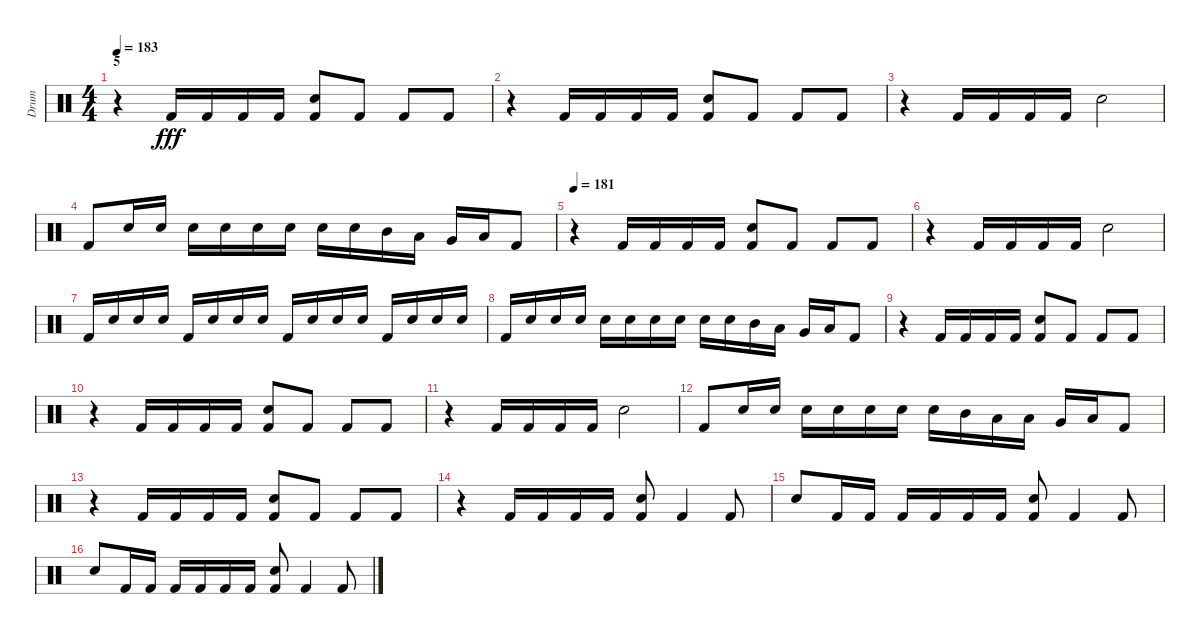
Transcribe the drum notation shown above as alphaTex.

\track ("Drum" "Drum") {instrument percussion}
\staff {score}
\articulation defaults
\ts (4 4)
\section ("" "5")
\tempo 183
\clef neutral
\ks c
r.4{dy fff} "Kick (hit) 2".16 "Kick (hit) 2".16 "Kick (hit) 2".16 "Kick (hit) 2".16 ("Electric Snare (hit)" "Kick (hit) 2").8 "Kick (hit) 2".8 "Kick (hit) 2".8 "Kick (hit) 2".8 |
r.4 "Kick (hit) 2".16 "Kick (hit) 2".16 "Kick (hit) 2".16 "Kick (hit) 2".16 ("Electric Snare (hit)" "Kick (hit) 2").8 "Kick (hit) 2".8 "Kick (hit) 2".8 "Kick (hit) 2".8 |
r.4 "Kick (hit) 2".16 "Kick (hit) 2".16 "Kick (hit) 2".16 "Kick (hit) 2".16 "Electric Snare (hit)".2 |
"Kick (hit) 2".8 "Electric Snare (hit)".16 "Electric Snare (hit)".16 "Electric Snare (hit)".16 "Electric Snare (hit)".16 "Electric Snare (hit)".16 "Electric Snare (hit)".16 "Electric Snare (hit)".16 "Electric Snare (hit)".16 "Mid Tom (hit)".16 "Low Tom (hit)".16 "Very Low Tom (hit)".16 "Low Floor Tom (hit)".16 "Kick (hit) 2".8 |
\tempo 181
r.4 "Kick (hit) 2".16 "Kick (hit) 2".16 "Kick (hit) 2".16 "Kick (hit) 2".16 ("Electric Snare (hit)" "Kick (hit) 2").8 "Kick (hit) 2".8 "Kick (hit) 2".8 "Kick (hit) 2".8 |
r.4 "Kick (hit) 2".16 "Kick (hit) 2".16 "Kick (hit) 2".16 "Kick (hit) 2".16 "Electric Snare (hit)".2 |
"Kick (hit) 2".16 "Electric Snare (hit)".16 "Electric Snare (hit)".16 "Electric Snare (hit)".16 "Kick (hit) 2".16 "Electric Snare (hit)".16 "Electric Snare (hit)".16 "Electric Snare (hit)".16 "Kick (hit) 2".16 "Electric Snare (hit)".16 "Electric Snare (hit)".16 "Electric Snare (hit)".16 "Kick (hit) 2".16 "Electric Snare (hit)".16 "Electric Snare (hit)".16 "Electric Snare (hit)".16 |
"Kick (hit) 2".16 "Electric Snare (hit)".16 "Electric Snare (hit)".16 "Electric Snare (hit)".16 "Electric Snare (hit)".16 "Electric Snare (hit)".16 "Electric Snare (hit)".16 "Electric Snare (hit)".16 "Electric Snare (hit)".16 "Electric Snare (hit)".16 "Mid Tom (hit)".16 "Low Tom (hit)".16 "Very Low Tom (hit)".16 "Low Floor Tom (hit)".16 "Kick (hit) 2".8 |
r.4 "Kick (hit) 2".16 "Kick (hit) 2".16 "Kick (hit) 2".16 "Kick (hit) 2".16 ("Electric Snare (hit)" "Kick (hit) 2").8 "Kick (hit) 2".8 "Kick (hit) 2".8 "Kick (hit) 2".8 |
r.4 "Kick (hit) 2".16 "Kick (hit) 2".16 "Kick (hit) 2".16 "Kick (hit) 2".16 ("Electric Snare (hit)" "Kick (hit) 2").8 "Kick (hit) 2".8 "Kick (hit) 2".8 "Kick (hit) 2".8 |
r.4 "Kick (hit) 2".16 "Kick (hit) 2".16 "Kick (hit) 2".16 "Kick (hit) 2".16 "Electric Snare (hit)".2 |
"Kick (hit) 2".8 "Electric Snare (hit)".16 "Electric Snare (hit)".16 "Electric Snare (hit)".16 "Electric Snare (hit)".16 "Electric Snare (hit)".16 "Electric Snare (hit)".16 "Electric Snare (hit)".16 "Mid Tom (hit)".16 "Low Tom (hit)".16 "Low Tom (hit)".16 "Very Low Tom (hit)".16 "Low Floor Tom (hit)".16 "Kick (hit) 2".8 |
r.4 "Kick (hit) 2".16 "Kick (hit) 2".16 "Kick (hit) 2".16 "Kick (hit) 2".16 ("Electric Snare (hit)" "Kick (hit) 2").8 "Kick (hit) 2".8 "Kick (hit) 2".8 "Kick (hit) 2".8 |
r.4 "Kick (hit) 2".16 "Kick (hit) 2".16 "Kick (hit) 2".16 "Kick (hit) 2".16 ("Electric Snare (hit)" "Kick (hit) 2").8 "Kick (hit) 2".4 "Kick (hit) 2".8 |
"Electric Snare (hit)".8 "Kick (hit) 2".16 "Kick (hit) 2".16 "Kick (hit) 2".16 "Kick (hit) 2".16 "Kick (hit) 2".16 "Kick (hit) 2".16 ("Electric Snare (hit)" "Kick (hit) 2").8 "Kick (hit) 2".4 "Kick (hit) 2".8 |
"Electric Snare (hit)".8 "Kick (hit) 2".16 "Kick (hit) 2".16 "Kick (hit) 2".16 "Kick (hit) 2".16 "Kick (hit) 2".16 "Kick (hit) 2".16 ("Electric Snare (hit)" "Kick (hit) 2").8 "Kick (hit) 2".4 "Kick (hit) 2".8
